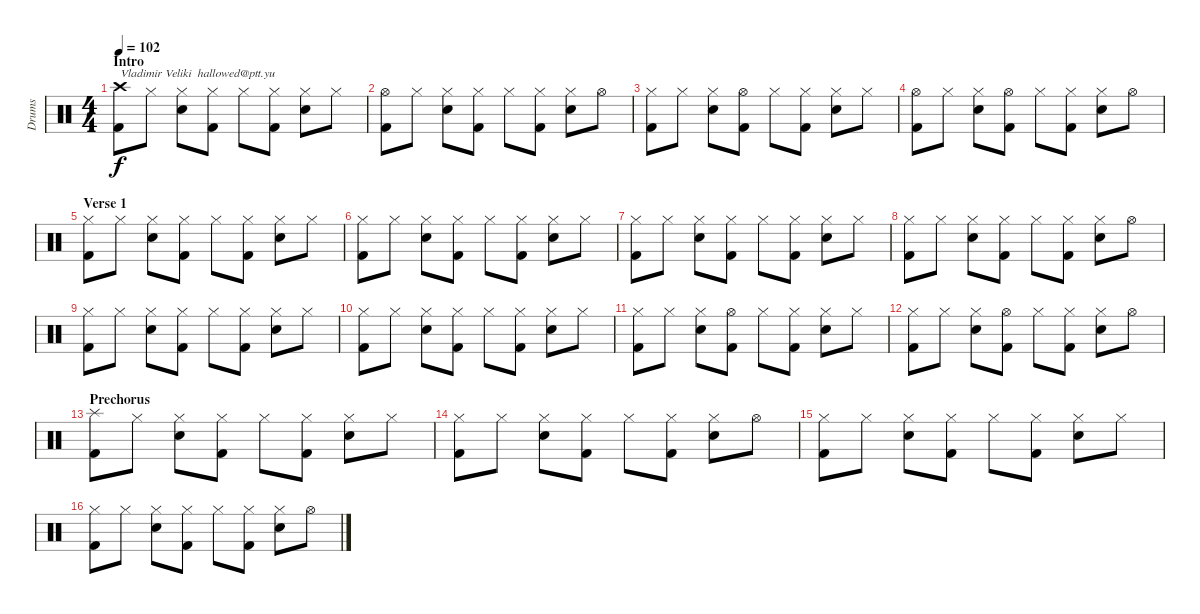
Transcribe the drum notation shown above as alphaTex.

\track ("Drums" "Drums") {instrument percussion}
\staff {score}
\articulation defaults
\ts (4 4)
\section ("" "Intro")
\tempo 102
\clef neutral
\ks c
("Crash high (hit)" "Kick (hit) 2").8{txt "Vladimir Veliki  hallowed@ptt.yu" dy f} "Hi-Hat (closed)".8 ("Hi-Hat (closed)" "Electric Snare (hit)").8 ("Hi-Hat (closed)" "Kick (hit) 2").8 "Hi-Hat (closed)".8 ("Hi-Hat (closed)" "Kick (hit) 2").8 ("Hi-Hat (closed)" "Electric Snare (hit)").8 "Hi-Hat (closed)".8 |
("Hi-Hat (open)" "Kick (hit) 2").8 "Hi-Hat (closed)".8 ("Hi-Hat (closed)" "Electric Snare (hit)").8 ("Hi-Hat (closed)" "Kick (hit) 2").8 "Hi-Hat (closed)".8 ("Hi-Hat (closed)" "Kick (hit) 2").8 ("Hi-Hat (closed)" "Electric Snare (hit)").8 "Hi-Hat (open)".8 |
("Hi-Hat (closed)" "Kick (hit) 2").8 "Hi-Hat (closed)".8 ("Hi-Hat (closed)" "Electric Snare (hit)").8 ("Hi-Hat (open)" "Kick (hit) 2").8 "Hi-Hat (closed)".8 ("Hi-Hat (closed)" "Kick (hit) 2").8 ("Hi-Hat (closed)" "Electric Snare (hit)").8 "Hi-Hat (closed)".8 |
("Hi-Hat (open)" "Kick (hit) 2").8 "Hi-Hat (closed)".8 ("Hi-Hat (closed)" "Electric Snare (hit)").8 ("Hi-Hat (open)" "Kick (hit) 2").8 "Hi-Hat (closed)".8 ("Hi-Hat (closed)" "Kick (hit) 2").8 ("Hi-Hat (closed)" "Electric Snare (hit)").8 "Hi-Hat (open)".8 |
\section ("" "Verse 1")
("Hi-Hat (closed)" "Kick (hit) 2").8 "Hi-Hat (closed)".8 ("Hi-Hat (closed)" "Electric Snare (hit)").8 ("Hi-Hat (closed)" "Kick (hit) 2").8 "Hi-Hat (closed)".8 ("Hi-Hat (closed)" "Kick (hit) 2").8 ("Hi-Hat (closed)" "Electric Snare (hit)").8 "Hi-Hat (closed)".8 |
("Hi-Hat (closed)" "Kick (hit) 2").8 "Hi-Hat (closed)".8 ("Hi-Hat (closed)" "Electric Snare (hit)").8 ("Hi-Hat (closed)" "Kick (hit) 2").8 "Hi-Hat (closed)".8 ("Hi-Hat (closed)" "Kick (hit) 2").8 ("Hi-Hat (closed)" "Electric Snare (hit)").8 "Hi-Hat (closed)".8 |
("Hi-Hat (closed)" "Kick (hit) 2").8 "Hi-Hat (closed)".8 ("Hi-Hat (closed)" "Electric Snare (hit)").8 ("Hi-Hat (closed)" "Kick (hit) 2").8 "Hi-Hat (closed)".8 ("Hi-Hat (closed)" "Kick (hit) 2").8 ("Hi-Hat (closed)" "Electric Snare (hit)").8 "Hi-Hat (closed)".8 |
("Hi-Hat (closed)" "Kick (hit) 2").8 "Hi-Hat (closed)".8 ("Hi-Hat (closed)" "Electric Snare (hit)").8 ("Hi-Hat (closed)" "Kick (hit) 2").8 "Hi-Hat (closed)".8 ("Hi-Hat (closed)" "Kick (hit) 2").8 ("Hi-Hat (closed)" "Electric Snare (hit)").8 "Hi-Hat (open)".8 |
("Hi-Hat (closed)" "Kick (hit) 2").8 "Hi-Hat (closed)".8 ("Hi-Hat (closed)" "Electric Snare (hit)").8 ("Hi-Hat (closed)" "Kick (hit) 2").8 "Hi-Hat (closed)".8 ("Hi-Hat (closed)" "Kick (hit) 2").8 ("Hi-Hat (closed)" "Electric Snare (hit)").8 "Hi-Hat (closed)".8 |
("Hi-Hat (closed)" "Kick (hit) 2").8 "Hi-Hat (closed)".8 ("Hi-Hat (closed)" "Electric Snare (hit)").8 ("Hi-Hat (closed)" "Kick (hit) 2").8 "Hi-Hat (closed)".8 ("Hi-Hat (closed)" "Kick (hit) 2").8 ("Hi-Hat (closed)" "Electric Snare (hit)").8 "Hi-Hat (closed)".8 |
("Hi-Hat (closed)" "Kick (hit) 2").8 "Hi-Hat (closed)".8 ("Hi-Hat (closed)" "Electric Snare (hit)").8 ("Hi-Hat (open)" "Kick (hit) 2").8 "Hi-Hat (closed)".8 ("Hi-Hat (closed)" "Kick (hit) 2").8 ("Hi-Hat (closed)" "Electric Snare (hit)").8 "Hi-Hat (closed)".8 |
("Hi-Hat (closed)" "Kick (hit) 2").8 "Hi-Hat (closed)".8 ("Hi-Hat (closed)" "Electric Snare (hit)").8 ("Hi-Hat (open)" "Kick (hit) 2").8 "Hi-Hat (closed)".8 ("Hi-Hat (closed)" "Kick (hit) 2").8 ("Hi-Hat (closed)" "Electric Snare (hit)").8 "Hi-Hat (open)".8 |
\section ("" "Prechorus")
("Splash (hit)" "Kick (hit) 2").8 "Hi-Hat (closed)".8 ("Hi-Hat (closed)" "Electric Snare (hit)").8 ("Hi-Hat (closed)" "Kick (hit) 2").8 "Hi-Hat (closed)".8 ("Hi-Hat (closed)" "Kick (hit) 2").8 ("Hi-Hat (closed)" "Electric Snare (hit)").8 "Hi-Hat (closed)".8 |
("Hi-Hat (closed)" "Kick (hit) 2").8 "Hi-Hat (closed)".8 ("Hi-Hat (closed)" "Electric Snare (hit)").8 ("Hi-Hat (closed)" "Kick (hit) 2").8 "Hi-Hat (closed)".8 ("Hi-Hat (closed)" "Kick (hit) 2").8 ("Hi-Hat (closed)" "Electric Snare (hit)").8 "Hi-Hat (open)".8 |
("Hi-Hat (closed)" "Kick (hit) 2").8 "Hi-Hat (closed)".8 ("Hi-Hat (closed)" "Electric Snare (hit)").8 ("Hi-Hat (closed)" "Kick (hit) 2").8 "Hi-Hat (closed)".8 ("Hi-Hat (closed)" "Kick (hit) 2").8 ("Hi-Hat (closed)" "Electric Snare (hit)").8 "Hi-Hat (closed)".8 |
("Hi-Hat (closed)" "Kick (hit) 2").8 "Hi-Hat (closed)".8 ("Hi-Hat (closed)" "Electric Snare (hit)").8 ("Hi-Hat (closed)" "Kick (hit) 2").8 "Hi-Hat (closed)".8 ("Hi-Hat (closed)" "Kick (hit) 2").8 ("Hi-Hat (closed)" "Electric Snare (hit)").8 "Hi-Hat (open)".8
